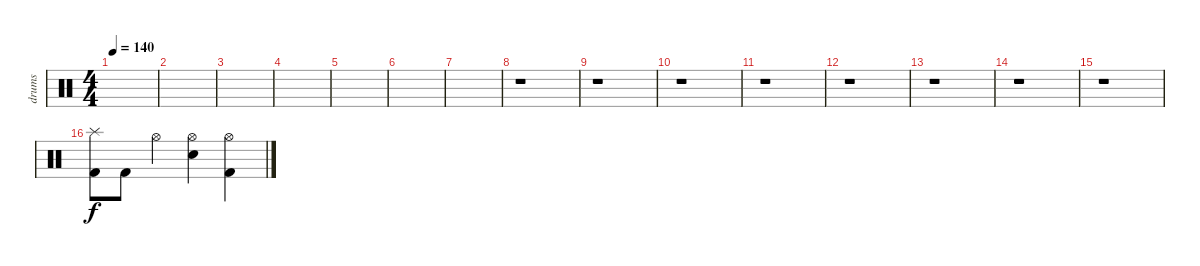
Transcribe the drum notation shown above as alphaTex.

\track ("drums" "drums") {instrument percussion}
\staff {score}
\articulation defaults
\ts (4 4)
\tempo 140
\clef neutral
\ks c
|
|
|
|
|
|
|
r.1 |
r.1 |
r.1 |
r.1 |
r.1 |
r.1 |
r.1 |
r.1 |
("Splash (hit)" "Kick (hit) 2").8 "Kick (hit) 2".8 "Hi-Hat (open)".4 ("Hi-Hat (open)" "Electric Snare (hit)").4 ("Hi-Hat (open)" "Kick (hit) 2").4
